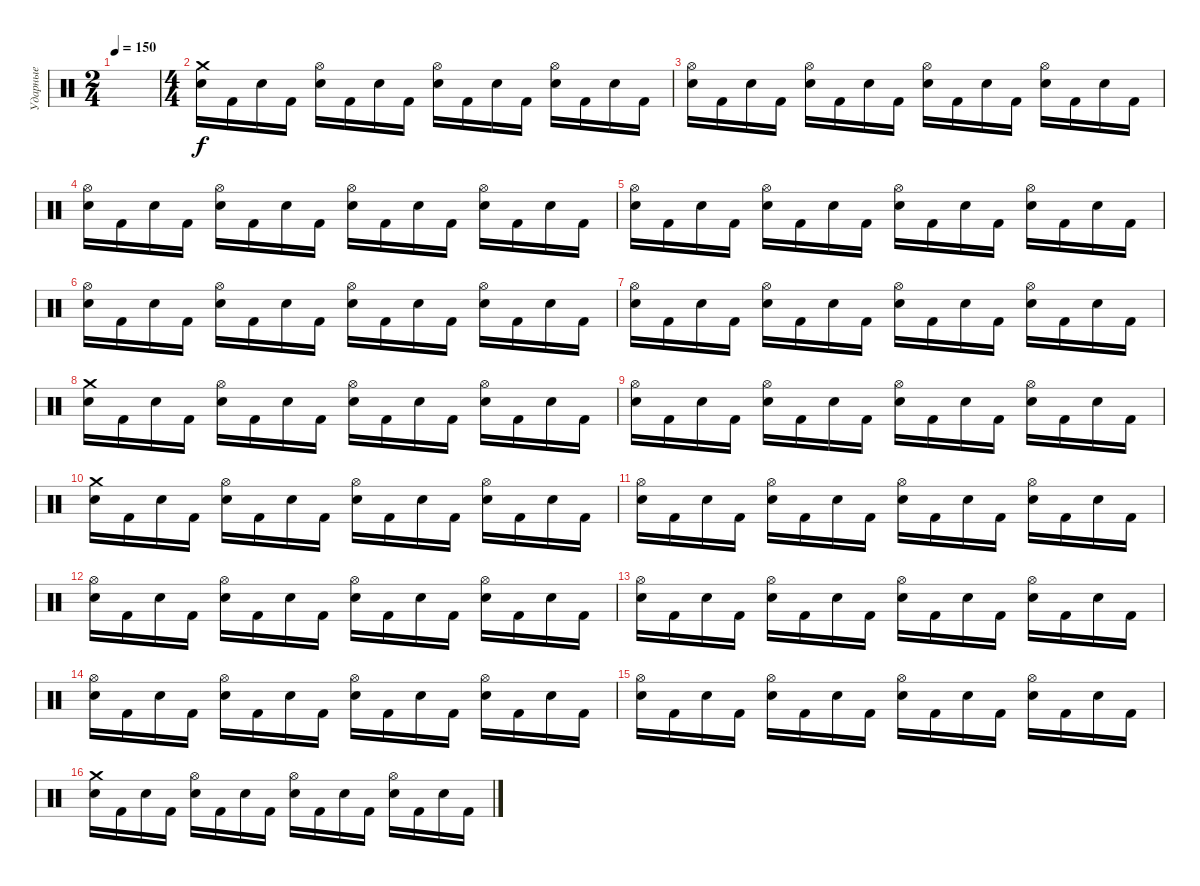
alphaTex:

\track ("Ударные" "Ударные") {instrument percussion}
\staff {score}
\articulation defaults
\ts (2 4)
\tempo 150
\clef neutral
\ks c
|
\ts (4 4)
("Crash medium (hit)" "Electric Snare (hit)").16 "Kick (hit) 2".16 "Electric Snare (hit)".16 "Kick (hit) 2".16 ("Hi-Hat (open)" "Electric Snare (hit)").16 "Kick (hit) 2".16 "Electric Snare (hit)".16 "Kick (hit) 2".16 ("Hi-Hat (open)" "Electric Snare (hit)").16 "Kick (hit) 2".16 "Electric Snare (hit)".16 "Kick (hit) 2".16 ("Hi-Hat (open)" "Electric Snare (hit)").16 "Kick (hit) 2".16 "Electric Snare (hit)".16 "Kick (hit) 2".16 |
("Hi-Hat (open)" "Electric Snare (hit)").16 "Kick (hit) 2".16 "Electric Snare (hit)".16 "Kick (hit) 2".16 ("Hi-Hat (open)" "Electric Snare (hit)").16 "Kick (hit) 2".16 "Electric Snare (hit)".16 "Kick (hit) 2".16 ("Hi-Hat (open)" "Electric Snare (hit)").16 "Kick (hit) 2".16 "Electric Snare (hit)".16 "Kick (hit) 2".16 ("Hi-Hat (open)" "Electric Snare (hit)").16 "Kick (hit) 2".16 "Electric Snare (hit)".16 "Kick (hit) 2".16 |
("Hi-Hat (open)" "Electric Snare (hit)").16 "Kick (hit) 2".16 "Electric Snare (hit)".16 "Kick (hit) 2".16 ("Hi-Hat (open)" "Electric Snare (hit)").16 "Kick (hit) 2".16 "Electric Snare (hit)".16 "Kick (hit) 2".16 ("Hi-Hat (open)" "Electric Snare (hit)").16 "Kick (hit) 2".16 "Electric Snare (hit)".16 "Kick (hit) 2".16 ("Hi-Hat (open)" "Electric Snare (hit)").16 "Kick (hit) 2".16 "Electric Snare (hit)".16 "Kick (hit) 2".16 |
("Hi-Hat (open)" "Electric Snare (hit)").16 "Kick (hit) 2".16 "Electric Snare (hit)".16 "Kick (hit) 2".16 ("Hi-Hat (open)" "Electric Snare (hit)").16 "Kick (hit) 2".16 "Electric Snare (hit)".16 "Kick (hit) 2".16 ("Hi-Hat (open)" "Electric Snare (hit)").16 "Kick (hit) 2".16 "Electric Snare (hit)".16 "Kick (hit) 2".16 ("Hi-Hat (open)" "Electric Snare (hit)").16 "Kick (hit) 2".16 "Electric Snare (hit)".16 "Kick (hit) 2".16 |
("Hi-Hat (open)" "Electric Snare (hit)").16 "Kick (hit) 2".16 "Electric Snare (hit)".16 "Kick (hit) 2".16 ("Hi-Hat (open)" "Electric Snare (hit)").16 "Kick (hit) 2".16 "Electric Snare (hit)".16 "Kick (hit) 2".16 ("Hi-Hat (open)" "Electric Snare (hit)").16 "Kick (hit) 2".16 "Electric Snare (hit)".16 "Kick (hit) 2".16 ("Hi-Hat (open)" "Electric Snare (hit)").16 "Kick (hit) 2".16 "Electric Snare (hit)".16 "Kick (hit) 2".16 |
("Hi-Hat (open)" "Electric Snare (hit)").16 "Kick (hit) 2".16 "Electric Snare (hit)".16 "Kick (hit) 2".16 ("Hi-Hat (open)" "Electric Snare (hit)").16 "Kick (hit) 2".16 "Electric Snare (hit)".16 "Kick (hit) 2".16 ("Hi-Hat (open)" "Electric Snare (hit)").16 "Kick (hit) 2".16 "Electric Snare (hit)".16 "Kick (hit) 2".16 ("Hi-Hat (open)" "Electric Snare (hit)").16 "Kick (hit) 2".16 "Electric Snare (hit)".16 "Kick (hit) 2".16 |
("Crash medium (hit)" "Electric Snare (hit)").16 "Kick (hit) 2".16 "Electric Snare (hit)".16 "Kick (hit) 2".16 ("Hi-Hat (open)" "Electric Snare (hit)").16 "Kick (hit) 2".16 "Electric Snare (hit)".16 "Kick (hit) 2".16 ("Hi-Hat (open)" "Electric Snare (hit)").16 "Kick (hit) 2".16 "Electric Snare (hit)".16 "Kick (hit) 2".16 ("Hi-Hat (open)" "Electric Snare (hit)").16 "Kick (hit) 2".16 "Electric Snare (hit)".16 "Kick (hit) 2".16 |
("Hi-Hat (open)" "Electric Snare (hit)").16 "Kick (hit) 2".16 "Electric Snare (hit)".16 "Kick (hit) 2".16 ("Hi-Hat (open)" "Electric Snare (hit)").16 "Kick (hit) 2".16 "Electric Snare (hit)".16 "Kick (hit) 2".16 ("Hi-Hat (open)" "Electric Snare (hit)").16 "Kick (hit) 2".16 "Electric Snare (hit)".16 "Kick (hit) 2".16 ("Hi-Hat (open)" "Electric Snare (hit)").16 "Kick (hit) 2".16 "Electric Snare (hit)".16 "Kick (hit) 2".16 |
("Crash medium (hit)" "Electric Snare (hit)").16 "Kick (hit) 2".16 "Electric Snare (hit)".16 "Kick (hit) 2".16 ("Hi-Hat (open)" "Electric Snare (hit)").16 "Kick (hit) 2".16 "Electric Snare (hit)".16 "Kick (hit) 2".16 ("Hi-Hat (open)" "Electric Snare (hit)").16 "Kick (hit) 2".16 "Electric Snare (hit)".16 "Kick (hit) 2".16 ("Hi-Hat (open)" "Electric Snare (hit)").16 "Kick (hit) 2".16 "Electric Snare (hit)".16 "Kick (hit) 2".16 |
("Hi-Hat (open)" "Electric Snare (hit)").16 "Kick (hit) 2".16 "Electric Snare (hit)".16 "Kick (hit) 2".16 ("Hi-Hat (open)" "Electric Snare (hit)").16 "Kick (hit) 2".16 "Electric Snare (hit)".16 "Kick (hit) 2".16 ("Hi-Hat (open)" "Electric Snare (hit)").16 "Kick (hit) 2".16 "Electric Snare (hit)".16 "Kick (hit) 2".16 ("Hi-Hat (open)" "Electric Snare (hit)").16 "Kick (hit) 2".16 "Electric Snare (hit)".16 "Kick (hit) 2".16 |
("Hi-Hat (open)" "Electric Snare (hit)").16 "Kick (hit) 2".16 "Electric Snare (hit)".16 "Kick (hit) 2".16 ("Hi-Hat (open)" "Electric Snare (hit)").16 "Kick (hit) 2".16 "Electric Snare (hit)".16 "Kick (hit) 2".16 ("Hi-Hat (open)" "Electric Snare (hit)").16 "Kick (hit) 2".16 "Electric Snare (hit)".16 "Kick (hit) 2".16 ("Hi-Hat (open)" "Electric Snare (hit)").16 "Kick (hit) 2".16 "Electric Snare (hit)".16 "Kick (hit) 2".16 |
("Hi-Hat (open)" "Electric Snare (hit)").16 "Kick (hit) 2".16 "Electric Snare (hit)".16 "Kick (hit) 2".16 ("Hi-Hat (open)" "Electric Snare (hit)").16 "Kick (hit) 2".16 "Electric Snare (hit)".16 "Kick (hit) 2".16 ("Hi-Hat (open)" "Electric Snare (hit)").16 "Kick (hit) 2".16 "Electric Snare (hit)".16 "Kick (hit) 2".16 ("Hi-Hat (open)" "Electric Snare (hit)").16 "Kick (hit) 2".16 "Electric Snare (hit)".16 "Kick (hit) 2".16 |
("Hi-Hat (open)" "Electric Snare (hit)").16 "Kick (hit) 2".16 "Electric Snare (hit)".16 "Kick (hit) 2".16 ("Hi-Hat (open)" "Electric Snare (hit)").16 "Kick (hit) 2".16 "Electric Snare (hit)".16 "Kick (hit) 2".16 ("Hi-Hat (open)" "Electric Snare (hit)").16 "Kick (hit) 2".16 "Electric Snare (hit)".16 "Kick (hit) 2".16 ("Hi-Hat (open)" "Electric Snare (hit)").16 "Kick (hit) 2".16 "Electric Snare (hit)".16 "Kick (hit) 2".16 |
("Hi-Hat (open)" "Electric Snare (hit)").16 "Kick (hit) 2".16 "Electric Snare (hit)".16 "Kick (hit) 2".16 ("Hi-Hat (open)" "Electric Snare (hit)").16 "Kick (hit) 2".16 "Electric Snare (hit)".16 "Kick (hit) 2".16 ("Hi-Hat (open)" "Electric Snare (hit)").16 "Kick (hit) 2".16 "Electric Snare (hit)".16 "Kick (hit) 2".16 ("Hi-Hat (open)" "Electric Snare (hit)").16 "Kick (hit) 2".16 "Electric Snare (hit)".16 "Kick (hit) 2".16 |
("Crash medium (hit)" "Electric Snare (hit)").16 "Kick (hit) 2".16 "Electric Snare (hit)".16 "Kick (hit) 2".16 ("Hi-Hat (open)" "Electric Snare (hit)").16 "Kick (hit) 2".16 "Electric Snare (hit)".16 "Kick (hit) 2".16 ("Hi-Hat (open)" "Electric Snare (hit)").16 "Kick (hit) 2".16 "Electric Snare (hit)".16 "Kick (hit) 2".16 ("Hi-Hat (open)" "Electric Snare (hit)").16 "Kick (hit) 2".16 "Electric Snare (hit)".16 "Kick (hit) 2".16
